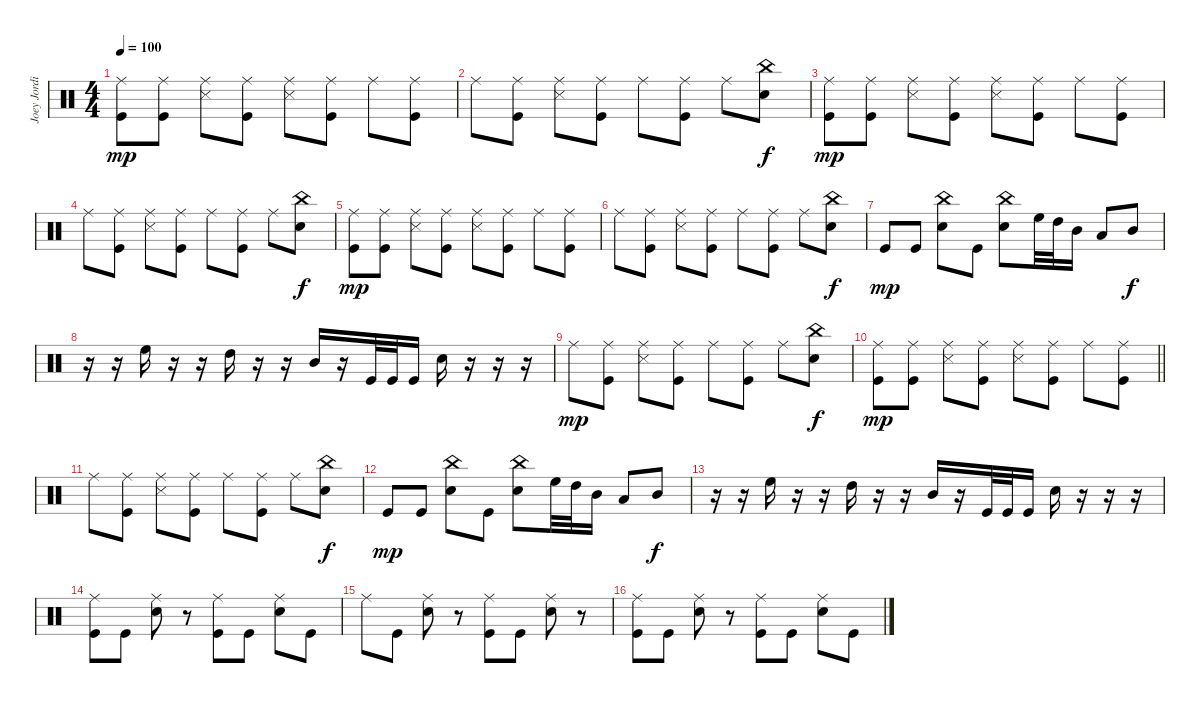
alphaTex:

\track ("Joey Jordison" "Joey Jordi") {instrument percussion}
\staff {score}
\articulation defaults
\ts (4 4)
\tempo 100
\clef neutral
\ks c
("Kick (hit)" "Ride (middle)").8{dy mp} ("Kick (hit)" "Ride (middle)").8 ("Snare (side stick) 3" "Ride (middle)").8 ("Kick (hit)" "Ride (middle)").8 ("Snare (side stick) 3" "Ride (middle)").8 ("Kick (hit)" "Ride (middle)").8 "Ride (middle)".8 ("Kick (hit)" "Ride (middle)").8 |
"Ride (middle)".8 ("Kick (hit)" "Ride (middle)").8 ("Snare (side stick) 3" "Ride (middle)").8 ("Kick (hit)" "Ride (middle)").8 "Ride (middle)".8 ("Kick (hit)" "Ride (middle)").8 "Ride (middle)".8 ("Snare (hit) 2" "China (hit)").8{dy f} |
("Kick (hit)" "Ride (middle)").8{dy mp} ("Kick (hit)" "Ride (middle)").8 ("Snare (side stick) 3" "Ride (middle)").8 ("Kick (hit)" "Ride (middle)").8 ("Snare (side stick) 3" "Ride (middle)").8 ("Kick (hit)" "Ride (middle)").8 "Ride (middle)".8 ("Kick (hit)" "Ride (middle)").8 |
"Ride (middle)".8 ("Kick (hit)" "Ride (middle)").8 ("Snare (side stick) 3" "Ride (middle)").8 ("Kick (hit)" "Ride (middle)").8 "Ride (middle)".8 ("Kick (hit)" "Ride (middle)").8 "Ride (middle)".8 ("Snare (hit) 2" "China (hit)").8{dy f} |
("Kick (hit)" "Ride (middle)").8{dy mp} ("Kick (hit)" "Ride (middle)").8 ("Snare (side stick) 3" "Ride (middle)").8 ("Kick (hit)" "Ride (middle)").8 ("Snare (side stick) 3" "Ride (middle)").8 ("Kick (hit)" "Ride (middle)").8 "Ride (middle)".8 ("Kick (hit)" "Ride (middle)").8 |
"Ride (middle)".8 ("Kick (hit)" "Ride (middle)").8 ("Snare (side stick) 3" "Ride (middle)").8 ("Kick (hit)" "Ride (middle)").8 "Ride (middle)".8 ("Kick (hit)" "Ride (middle)").8 "Ride (middle)".8 ("Snare (hit) 2" "China (hit)").8{dy f} |
"Kick (hit)".8{dy mp} "Kick (hit)".8 ("Snare (hit) 2" "China (hit)").8 "Kick (hit)".8 ("Snare (hit) 2" "China (hit)").8 "High Floor Tom (hit)".32 "High Tom (hit)".32 "Mid Tom (hit)".16 "Low Tom (hit)".8 "Mid Tom (hit)".8{dy f} |
r.16 r.16 "High Floor Tom (hit)".16 r.16 r.16 "High Tom (hit)".16 r.16 r.16 "Mid Tom (hit)".16 r.16 "Kick (hit)".32 "Kick (hit)".32 "Kick (hit)".16 "Snare (hit) 2".16 r.16 r.16 r.16 |
"Ride (middle)".8{dy mp} ("Kick (hit)" "Ride (middle)").8 ("Snare (side stick) 3" "Ride (middle)").8 ("Kick (hit)" "Ride (middle)").8 "Ride (middle)".8 ("Kick (hit)" "Ride (middle)").8 "Ride (middle)".8 ("Snare (hit) 2" "China (hit)").8{dy f} |
\barLineRight lightlight
("Kick (hit)" "Ride (middle)").8{dy mp} ("Kick (hit)" "Ride (middle)").8 ("Snare (side stick) 3" "Ride (middle)").8 ("Kick (hit)" "Ride (middle)").8 ("Snare (side stick) 3" "Ride (middle)").8 ("Kick (hit)" "Ride (middle)").8 "Ride (middle)".8 ("Kick (hit)" "Ride (middle)").8 |
"Ride (middle)".8 ("Kick (hit)" "Ride (middle)").8 ("Snare (side stick) 3" "Ride (middle)").8 ("Kick (hit)" "Ride (middle)").8 "Ride (middle)".8 ("Kick (hit)" "Ride (middle)").8 "Ride (middle)".8 ("Snare (hit) 2" "China (hit)").8{dy f} |
"Kick (hit)".8{dy mp} "Kick (hit)".8 ("Snare (hit) 2" "China (hit)").8 "Kick (hit)".8 ("Snare (hit) 2" "China (hit)").8 "High Floor Tom (hit)".32 "High Tom (hit)".32 "Mid Tom (hit)".16 "Low Tom (hit)".8 "Mid Tom (hit)".8{dy f} |
r.16 r.16 "High Floor Tom (hit)".16 r.16 r.16 "High Tom (hit)".16 r.16 r.16 "Mid Tom (hit)".16 r.16 "Kick (hit)".32 "Kick (hit)".32 "Kick (hit)".16 "Snare (hit) 2".16 r.16 r.16 r.16 |
("Kick (hit)" "Ride (middle)").8 "Kick (hit)".8 ("Snare (hit) 2" "Ride (middle)").8 r.8 ("Kick (hit)" "Ride (middle)").8 "Kick (hit)".8 ("Snare (hit) 2" "Ride (middle)").8 "Kick (hit)".8 |
"Ride (middle)".8 "Kick (hit)".8 ("Snare (hit) 2" "Ride (middle)").8 r.8 ("Kick (hit)" "Ride (middle)").8 "Kick (hit)".8 ("Snare (hit) 2" "Ride (middle)").8 r.8 |
("Kick (hit)" "Ride (middle)").8 "Kick (hit)".8 ("Snare (hit) 2" "Ride (middle)").8 r.8 ("Kick (hit)" "Ride (middle)").8 "Kick (hit)".8 ("Snare (hit) 2" "Ride (middle)").8 "Kick (hit)".8
